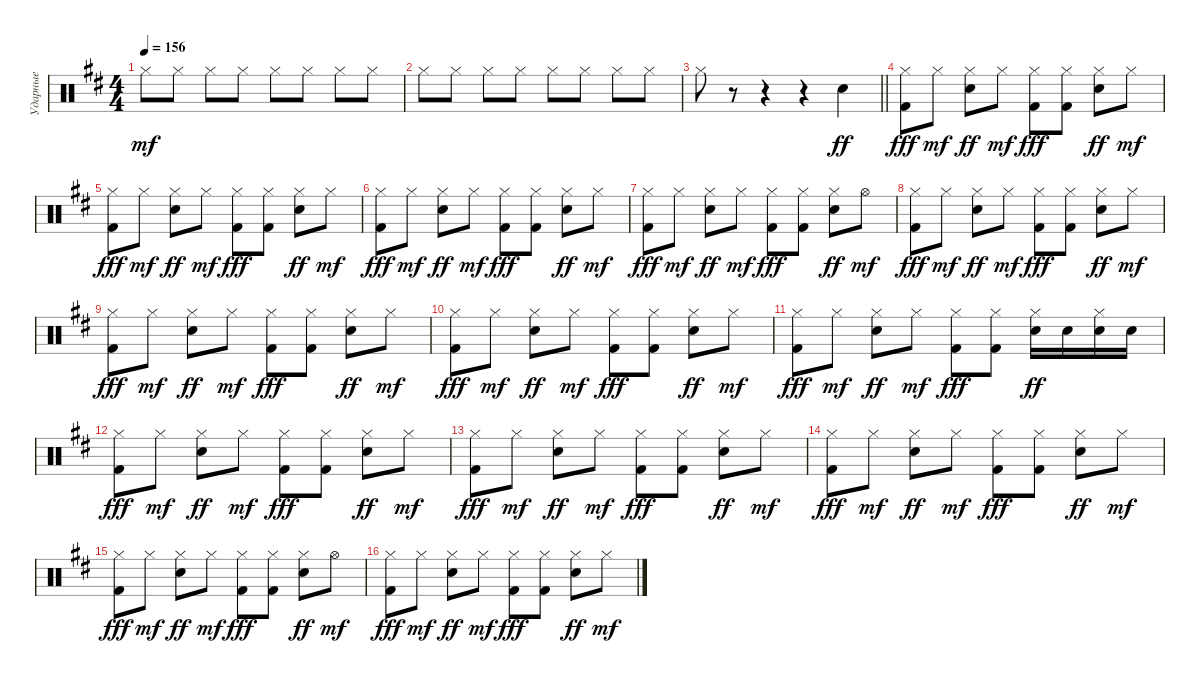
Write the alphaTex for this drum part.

\track ("Ударные" "Ударные") {instrument percussion}
\staff {score}
\articulation defaults
\ts (4 4)
\tempo 156
\clef neutral
\ks bminor "Hi-Hat (closed)".8{dy mf} "Hi-Hat (closed)".8 "Hi-Hat (closed)".8 "Hi-Hat (closed)".8 "Hi-Hat (closed)".8 "Hi-Hat (closed)".8 "Hi-Hat (closed)".8 "Hi-Hat (closed)".8
|
"Hi-Hat (closed)".8 "Hi-Hat (closed)".8 "Hi-Hat (closed)".8 "Hi-Hat (closed)".8 "Hi-Hat (closed)".8 "Hi-Hat (closed)".8 "Hi-Hat (closed)".8 "Hi-Hat (closed)".8 |
\barLineRight lightlight "Hi-Hat (closed)".8
r.8 r.4 r.4 "Electric Snare (hit)".4{dy ff} |
("Hi-Hat (closed)" "Kick (hit) 2").8{dy fff} "Hi-Hat (closed)".8{dy mf} ("Hi-Hat (closed)" "Electric Snare (hit)").8{dy ff} "Hi-Hat (closed)".8{dy mf} ("Hi-Hat (closed)" "Kick (hit) 2").8{dy fff} ("Hi-Hat (closed)" "Kick (hit) 2").8 ("Hi-Hat (closed)" "Electric Snare (hit)").8{dy ff} "Hi-Hat (closed)".8{dy mf} |
("Hi-Hat (closed)" "Kick (hit) 2").8{dy fff} "Hi-Hat (closed)".8{dy mf} ("Hi-Hat (closed)" "Electric Snare (hit)").8{dy ff} "Hi-Hat (closed)".8{dy mf} ("Hi-Hat (closed)" "Kick (hit) 2").8{dy fff} ("Hi-Hat (closed)" "Kick (hit) 2").8 ("Hi-Hat (closed)" "Electric Snare (hit)").8{dy ff} "Hi-Hat (closed)".8{dy mf} |
("Hi-Hat (closed)" "Kick (hit) 2").8{dy fff} "Hi-Hat (closed)".8{dy mf} ("Hi-Hat (closed)" "Electric Snare (hit)").8{dy ff} "Hi-Hat (closed)".8{dy mf} ("Hi-Hat (closed)" "Kick (hit) 2").8{dy fff} ("Hi-Hat (closed)" "Kick (hit) 2").8 ("Hi-Hat (closed)" "Electric Snare (hit)").8{dy ff} "Hi-Hat (closed)".8{dy mf} |
("Hi-Hat (closed)" "Kick (hit) 2").8{dy fff} "Hi-Hat (closed)".8{dy mf} ("Hi-Hat (closed)" "Electric Snare (hit)").8{dy ff} "Hi-Hat (closed)".8{dy mf} ("Hi-Hat (closed)" "Kick (hit) 2").8{dy fff} ("Hi-Hat (closed)" "Kick (hit) 2").8 ("Hi-Hat (closed)" "Electric Snare (hit)").8{dy ff} "Hi-Hat (open)".8{dy mf} |
("Hi-Hat (closed)" "Kick (hit) 2").8{dy fff} "Hi-Hat (closed)".8{dy mf} ("Hi-Hat (closed)" "Electric Snare (hit)").8{dy ff} "Hi-Hat (closed)".8{dy mf} ("Hi-Hat (closed)" "Kick (hit) 2").8{dy fff} ("Hi-Hat (closed)" "Kick (hit) 2").8 ("Hi-Hat (closed)" "Electric Snare (hit)").8{dy ff} "Hi-Hat (closed)".8{dy mf} |
("Hi-Hat (closed)" "Kick (hit) 2").8{dy fff} "Hi-Hat (closed)".8{dy mf} ("Hi-Hat (closed)" "Electric Snare (hit)").8{dy ff} "Hi-Hat (closed)".8{dy mf} ("Hi-Hat (closed)" "Kick (hit) 2").8{dy fff} ("Hi-Hat (closed)" "Kick (hit) 2").8 ("Hi-Hat (closed)" "Electric Snare (hit)").8{dy ff} "Hi-Hat (closed)".8{dy mf} |
("Hi-Hat (closed)" "Kick (hit) 2").8{dy fff} "Hi-Hat (closed)".8{dy mf} ("Hi-Hat (closed)" "Electric Snare (hit)").8{dy ff} "Hi-Hat (closed)".8{dy mf} ("Hi-Hat (closed)" "Kick (hit) 2").8{dy fff} ("Hi-Hat (closed)" "Kick (hit) 2").8 ("Hi-Hat (closed)" "Electric Snare (hit)").8{dy ff} "Hi-Hat (closed)".8{dy mf} |
("Hi-Hat (closed)" "Kick (hit) 2").8{dy fff} "Hi-Hat (closed)".8{dy mf} ("Hi-Hat (closed)" "Electric Snare (hit)").8{dy ff} "Hi-Hat (closed)".8{dy mf} ("Hi-Hat (closed)" "Kick (hit) 2").8{dy fff} ("Hi-Hat (closed)" "Kick (hit) 2").8 ("Hi-Hat (closed)" "Electric Snare (hit)").16{dy ff} "Electric Snare (hit)".16 ("Hi-Hat (closed)" "Electric Snare (hit)").16 "Electric Snare (hit)".16 |
("Hi-Hat (closed)" "Kick (hit) 2").8{dy fff} "Hi-Hat (closed)".8{dy mf} ("Hi-Hat (closed)" "Electric Snare (hit)").8{dy ff} "Hi-Hat (closed)".8{dy mf} ("Hi-Hat (closed)" "Kick (hit) 2").8{dy fff} ("Hi-Hat (closed)" "Kick (hit) 2").8 ("Hi-Hat (closed)" "Electric Snare (hit)").8{dy ff} "Hi-Hat (closed)".8{dy mf} |
("Hi-Hat (closed)" "Kick (hit) 2").8{dy fff} "Hi-Hat (closed)".8{dy mf} ("Hi-Hat (closed)" "Electric Snare (hit)").8{dy ff} "Hi-Hat (closed)".8{dy mf} ("Hi-Hat (closed)" "Kick (hit) 2").8{dy fff} ("Hi-Hat (closed)" "Kick (hit) 2").8 ("Hi-Hat (closed)" "Electric Snare (hit)").8{dy ff} "Hi-Hat (closed)".8{dy mf} |
("Hi-Hat (closed)" "Kick (hit) 2").8{dy fff} "Hi-Hat (closed)".8{dy mf} ("Hi-Hat (closed)" "Electric Snare (hit)").8{dy ff} "Hi-Hat (closed)".8{dy mf} ("Hi-Hat (closed)" "Kick (hit) 2").8{dy fff} ("Hi-Hat (closed)" "Kick (hit) 2").8 ("Hi-Hat (closed)" "Electric Snare (hit)").8{dy ff} "Hi-Hat (closed)".8{dy mf} |
("Hi-Hat (closed)" "Kick (hit) 2").8{dy fff} "Hi-Hat (closed)".8{dy mf} ("Hi-Hat (closed)" "Electric Snare (hit)").8{dy ff} "Hi-Hat (closed)".8{dy mf} ("Hi-Hat (closed)" "Kick (hit) 2").8{dy fff} ("Hi-Hat (closed)" "Kick (hit) 2").8 ("Hi-Hat (closed)" "Electric Snare (hit)").8{dy ff} "Hi-Hat (open)".8{dy mf} |
("Hi-Hat (closed)" "Kick (hit) 2").8{dy fff} "Hi-Hat (closed)".8{dy mf} ("Hi-Hat (closed)" "Electric Snare (hit)").8{dy ff} "Hi-Hat (closed)".8{dy mf} ("Hi-Hat (closed)" "Kick (hit) 2").8{dy fff} ("Hi-Hat (closed)" "Kick (hit) 2").8 ("Hi-Hat (closed)" "Electric Snare (hit)").8{dy ff} "Hi-Hat (closed)".8{dy mf}
